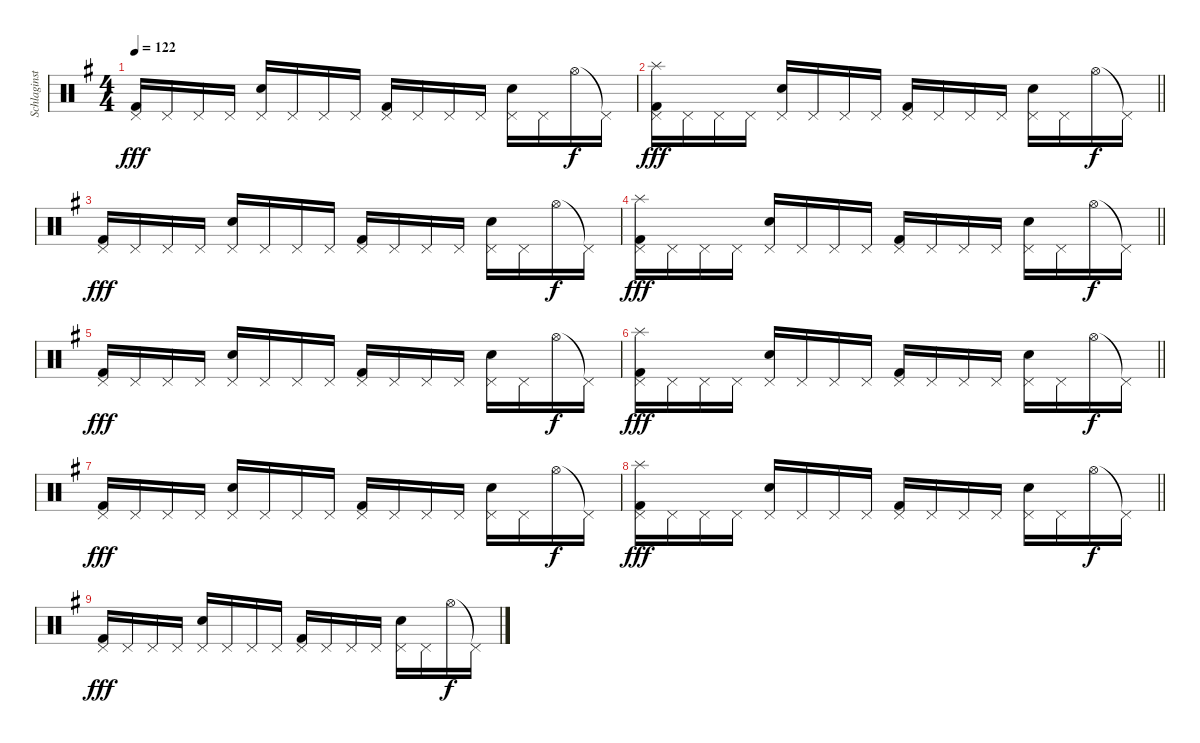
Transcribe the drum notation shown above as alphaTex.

\track ("Schlaginstrumente - Auswahl" "Schlaginst") {instrument percussion}
\staff {score}
\articulation defaults
\ts (4 4)
\tempo 122
\clef neutral
\ks g
("Pedal Hi-Hat (hit)" "Kick (hit) 2").16{dy fff} "Pedal Hi-Hat (hit)".16 "Pedal Hi-Hat (hit)".16 "Pedal Hi-Hat (hit)".16 ("Pedal Hi-Hat (hit)" "Electric Snare (hit)").16 "Pedal Hi-Hat (hit)".16 "Pedal Hi-Hat (hit)".16 "Pedal Hi-Hat (hit)".16 ("Pedal Hi-Hat (hit)" "Kick (hit) 2").16 "Pedal Hi-Hat (hit)".16 "Pedal Hi-Hat (hit)".16 "Pedal Hi-Hat (hit)".16 ("Pedal Hi-Hat (hit)" "Electric Snare (hit)").16 "Pedal Hi-Hat (hit)".16 "Hi-Hat (open)".16{dy f} "Pedal Hi-Hat (hit)"{t}.16 |
\barLineRight lightlight
("Splash (hit)" "Pedal Hi-Hat (hit)" "Kick (hit) 2").16{dy fff} "Pedal Hi-Hat (hit)".16 "Pedal Hi-Hat (hit)".16 "Pedal Hi-Hat (hit)".16 ("Pedal Hi-Hat (hit)" "Electric Snare (hit)").16 "Pedal Hi-Hat (hit)".16 "Pedal Hi-Hat (hit)".16 "Pedal Hi-Hat (hit)".16 ("Pedal Hi-Hat (hit)" "Kick (hit) 2").16 "Pedal Hi-Hat (hit)".16 "Pedal Hi-Hat (hit)".16 "Pedal Hi-Hat (hit)".16 ("Pedal Hi-Hat (hit)" "Electric Snare (hit)").16 "Pedal Hi-Hat (hit)".16 "Hi-Hat (open)".16{dy f} "Pedal Hi-Hat (hit)"{t}.16 |
("Pedal Hi-Hat (hit)" "Kick (hit) 2").16{dy fff} "Pedal Hi-Hat (hit)".16 "Pedal Hi-Hat (hit)".16 "Pedal Hi-Hat (hit)".16 ("Pedal Hi-Hat (hit)" "Electric Snare (hit)").16 "Pedal Hi-Hat (hit)".16 "Pedal Hi-Hat (hit)".16 "Pedal Hi-Hat (hit)".16 ("Pedal Hi-Hat (hit)" "Kick (hit) 2").16 "Pedal Hi-Hat (hit)".16 "Pedal Hi-Hat (hit)".16 "Pedal Hi-Hat (hit)".16 ("Pedal Hi-Hat (hit)" "Electric Snare (hit)").16 "Pedal Hi-Hat (hit)".16 "Hi-Hat (open)".16{dy f} "Pedal Hi-Hat (hit)"{t}.16 |
\barLineRight lightlight
("Splash (hit)" "Pedal Hi-Hat (hit)" "Kick (hit) 2").16{dy fff} "Pedal Hi-Hat (hit)".16 "Pedal Hi-Hat (hit)".16 "Pedal Hi-Hat (hit)".16 ("Pedal Hi-Hat (hit)" "Electric Snare (hit)").16 "Pedal Hi-Hat (hit)".16 "Pedal Hi-Hat (hit)".16 "Pedal Hi-Hat (hit)".16 ("Pedal Hi-Hat (hit)" "Kick (hit) 2").16 "Pedal Hi-Hat (hit)".16 "Pedal Hi-Hat (hit)".16 "Pedal Hi-Hat (hit)".16 ("Pedal Hi-Hat (hit)" "Electric Snare (hit)").16 "Pedal Hi-Hat (hit)".16 "Hi-Hat (open)".16{dy f} "Pedal Hi-Hat (hit)"{t}.16 |
("Pedal Hi-Hat (hit)" "Kick (hit) 2").16{dy fff} "Pedal Hi-Hat (hit)".16 "Pedal Hi-Hat (hit)".16 "Pedal Hi-Hat (hit)".16 ("Pedal Hi-Hat (hit)" "Electric Snare (hit)").16 "Pedal Hi-Hat (hit)".16 "Pedal Hi-Hat (hit)".16 "Pedal Hi-Hat (hit)".16 ("Pedal Hi-Hat (hit)" "Kick (hit) 2").16 "Pedal Hi-Hat (hit)".16 "Pedal Hi-Hat (hit)".16 "Pedal Hi-Hat (hit)".16 ("Pedal Hi-Hat (hit)" "Electric Snare (hit)").16 "Pedal Hi-Hat (hit)".16 "Hi-Hat (open)".16{dy f} "Pedal Hi-Hat (hit)"{t}.16 |
\barLineRight lightlight
("Splash (hit)" "Pedal Hi-Hat (hit)" "Kick (hit) 2").16{dy fff} "Pedal Hi-Hat (hit)".16 "Pedal Hi-Hat (hit)".16 "Pedal Hi-Hat (hit)".16 ("Pedal Hi-Hat (hit)" "Electric Snare (hit)").16 "Pedal Hi-Hat (hit)".16 "Pedal Hi-Hat (hit)".16 "Pedal Hi-Hat (hit)".16 ("Pedal Hi-Hat (hit)" "Kick (hit) 2").16 "Pedal Hi-Hat (hit)".16 "Pedal Hi-Hat (hit)".16 "Pedal Hi-Hat (hit)".16 ("Pedal Hi-Hat (hit)" "Electric Snare (hit)").16 "Pedal Hi-Hat (hit)".16 "Hi-Hat (open)".16{dy f} "Pedal Hi-Hat (hit)"{t}.16 |
("Pedal Hi-Hat (hit)" "Kick (hit) 2").16{dy fff} "Pedal Hi-Hat (hit)".16 "Pedal Hi-Hat (hit)".16 "Pedal Hi-Hat (hit)".16 ("Pedal Hi-Hat (hit)" "Electric Snare (hit)").16 "Pedal Hi-Hat (hit)".16 "Pedal Hi-Hat (hit)".16 "Pedal Hi-Hat (hit)".16 ("Pedal Hi-Hat (hit)" "Kick (hit) 2").16 "Pedal Hi-Hat (hit)".16 "Pedal Hi-Hat (hit)".16 "Pedal Hi-Hat (hit)".16 ("Pedal Hi-Hat (hit)" "Electric Snare (hit)").16 "Pedal Hi-Hat (hit)".16 "Hi-Hat (open)".16{dy f} "Pedal Hi-Hat (hit)"{t}.16 |
\barLineRight lightlight
("Splash (hit)" "Pedal Hi-Hat (hit)" "Kick (hit) 2").16{dy fff} "Pedal Hi-Hat (hit)".16 "Pedal Hi-Hat (hit)".16 "Pedal Hi-Hat (hit)".16 ("Pedal Hi-Hat (hit)" "Electric Snare (hit)").16 "Pedal Hi-Hat (hit)".16 "Pedal Hi-Hat (hit)".16 "Pedal Hi-Hat (hit)".16 ("Pedal Hi-Hat (hit)" "Kick (hit) 2").16 "Pedal Hi-Hat (hit)".16 "Pedal Hi-Hat (hit)".16 "Pedal Hi-Hat (hit)".16 ("Pedal Hi-Hat (hit)" "Electric Snare (hit)").16 "Pedal Hi-Hat (hit)".16 "Hi-Hat (open)".16{dy f} "Pedal Hi-Hat (hit)"{t}.16 |
("Pedal Hi-Hat (hit)" "Kick (hit) 2").16{dy fff} "Pedal Hi-Hat (hit)".16 "Pedal Hi-Hat (hit)".16 "Pedal Hi-Hat (hit)".16 ("Pedal Hi-Hat (hit)" "Electric Snare (hit)").16 "Pedal Hi-Hat (hit)".16 "Pedal Hi-Hat (hit)".16 "Pedal Hi-Hat (hit)".16 ("Pedal Hi-Hat (hit)" "Kick (hit) 2").16 "Pedal Hi-Hat (hit)".16 "Pedal Hi-Hat (hit)".16 "Pedal Hi-Hat (hit)".16 ("Pedal Hi-Hat (hit)" "Electric Snare (hit)").16 "Pedal Hi-Hat (hit)".16 "Hi-Hat (open)".16{dy f} "Pedal Hi-Hat (hit)"{t}.16
